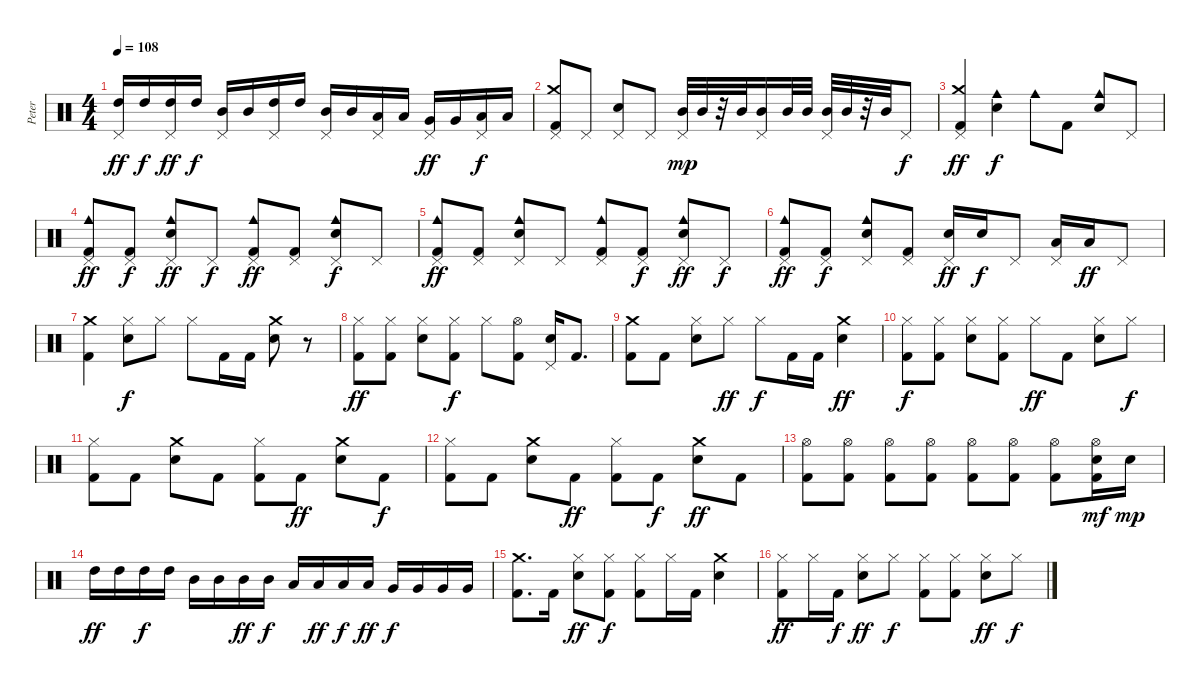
\track ("Peter" "Peter") {instrument percussion}
\staff {score}
\articulation defaults
\ts (4 4)
\tempo 108
\clef neutral
\ks c
("Pedal Hi-Hat (hit)" "High Tom (hit)").16{dy ff} "High Tom (hit)".16{dy f} ("Pedal Hi-Hat (hit)" "High Tom (hit)").16{dy ff} "High Tom (hit)".16{dy f} ("Mid Tom (hit)" "Pedal Hi-Hat (hit)").16 "Mid Tom (hit)".16 ("Pedal Hi-Hat (hit)" "High Tom (hit)").16 "High Tom (hit)".16 ("Mid Tom (hit)" "Pedal Hi-Hat (hit)").16 "Mid Tom (hit)".16 ("Low Tom (hit)" "Pedal Hi-Hat (hit)").16 "Low Tom (hit)".16 ("Pedal Hi-Hat (hit)" "Very Low Tom (hit)").16{dy ff} "Very Low Tom (hit)".16 ("Low Floor Tom (hit)" "Pedal Hi-Hat (hit)").16{dy f} "Low Floor Tom (hit)".16 |
("Pedal Hi-Hat (hit)" "Crash medium (hit)" "Kick (hit) 2").8 "Pedal Hi-Hat (hit)".8 ("Pedal Hi-Hat (hit)" "Electric Snare (hit)").8 "Pedal Hi-Hat (hit)".8 ("Mid Tom (hit)" "Pedal Hi-Hat (hit)").32{dy mp} "Mid Tom (hit)".32 r.32 "Mid Tom (hit)".32 ("Mid Tom (hit)" "Pedal Hi-Hat (hit)").16 "Mid Tom (hit)".32 "Mid Tom (hit)".32 ("Pedal Hi-Hat (hit)" "Mid Tom (hit)").32 "Mid Tom (hit)".32 r.32 "Mid Tom (hit)".32 "Pedal Hi-Hat (hit)".8{dy f} |
("Pedal Hi-Hat (hit)" "Crash medium (hit)" "Kick (hit) 2").4{dy ff} ("Cowbell medium (hit)" "Electric Snare (hit)").4{dy f} "Cowbell medium (hit)".8 "Kick (hit) 2".8 ("Electric Snare (hit)" "Cowbell medium (hit)").8 "Pedal Hi-Hat (hit)".8 |
("Pedal Hi-Hat (hit)" "Cowbell medium (hit)" "Kick (hit) 2").8{dy ff} ("Pedal Hi-Hat (hit)" "Kick (hit) 2").8{dy f} ("Electric Snare (hit)" "Cowbell medium (hit)" "Pedal Hi-Hat (hit)").8{dy ff} "Pedal Hi-Hat (hit)".8{dy f} ("Cowbell medium (hit)" "Pedal Hi-Hat (hit)" "Kick (hit) 2").8{dy ff} ("Kick (hit) 2" "Pedal Hi-Hat (hit)").8 ("Cowbell medium (hit)" "Electric Snare (hit)" "Pedal Hi-Hat (hit)").8{dy f} "Pedal Hi-Hat (hit)".8 |
("Kick (hit) 2" "Cowbell medium (hit)" "Pedal Hi-Hat (hit)").8{dy ff} ("Kick (hit) 2" "Pedal Hi-Hat (hit)").8 ("Pedal Hi-Hat (hit)" "Cowbell medium (hit)" "Electric Snare (hit)").8 "Pedal Hi-Hat (hit)".8 ("Kick (hit) 2" "Pedal Hi-Hat (hit)" "Cowbell medium (hit)").8 ("Pedal Hi-Hat (hit)" "Kick (hit) 2").8{dy f} ("Electric Snare (hit)" "Cowbell medium (hit)" "Pedal Hi-Hat (hit)").8{dy ff} "Pedal Hi-Hat (hit)".8{dy f} |
("Kick (hit) 2" "Pedal Hi-Hat (hit)" "Cowbell medium (hit)").8{dy ff} ("Kick (hit) 2" "Pedal Hi-Hat (hit)").8{dy f} ("Pedal Hi-Hat (hit)" "Electric Snare (hit)" "Cowbell medium (hit)").8 ("Kick (hit) 2" "Pedal Hi-Hat (hit)").8 ("Electric Snare (hit)" "Pedal Hi-Hat (hit)").16{dy ff} "Electric Snare (hit)".16{dy f} "Pedal Hi-Hat (hit)".8 ("Low Tom (hit)" "Pedal Hi-Hat (hit)").16 "Low Tom (hit)".16{dy ff} "Pedal Hi-Hat (hit)".8 |
("Kick (hit) 2" "Crash medium (hit)").4 ("Electric Snare (hit)" "Hi-Hat (closed)").8{dy f} "Hi-Hat (closed)".8 "Hi-Hat (closed)".8 "Kick (hit) 2".16 "Kick (hit) 2".16 ("Crash medium (hit)" "Electric Snare (hit)").8 r.8 |
("Hi-Hat (closed)" "Kick (hit) 2").8{dy ff} ("Hi-Hat (closed)" "Kick (hit) 2").8 ("Electric Snare (hit)" "Hi-Hat (closed)").8 ("Hi-Hat (closed)" "Kick (hit) 2").8{dy f} "Hi-Hat (closed)".8 ("Hi-Hat (open)" "Kick (hit) 2").8 ("Electric Snare (hit)" "Pedal Hi-Hat (hit)").16 "Kick (hit) 2".8{d} |
("Crash medium (hit)" "Kick (hit) 2").8 "Kick (hit) 2".8 ("Electric Snare (hit)" "Hi-Hat (closed)").8 "Hi-Hat (closed)".8{dy ff} "Hi-Hat (closed)".8{dy f} "Kick (hit) 2".16 "Kick (hit) 2".16 ("Crash medium (hit)" "Electric Snare (hit)").4{dy ff} |
("Kick (hit) 2" "Hi-Hat (closed)").8{dy f} ("Kick (hit) 2" "Hi-Hat (closed)").8 ("Hi-Hat (closed)" "Electric Snare (hit)").8 ("Hi-Hat (closed)" "Kick (hit) 2").8 "Hi-Hat (closed)".8{dy ff} "Kick (hit) 2".8 ("Hi-Hat (closed)" "Electric Snare (hit)").8 "Hi-Hat (closed)".8{dy f} |
("Hi-Hat (closed)" "Kick (hit) 2").8 "Kick (hit) 2".8 ("Crash medium (hit)" "Electric Snare (hit)").8 "Kick (hit) 2".8 ("Kick (hit) 2" "Hi-Hat (closed)").8 "Kick (hit) 2".8{dy ff} ("Electric Snare (hit)" "Crash medium (hit)").8 "Kick (hit) 2".8{dy f} |
("Kick (hit) 2" "Hi-Hat (closed)").8 "Kick (hit) 2".8 ("Electric Snare (hit)" "Crash medium (hit)").8 "Kick (hit) 2".8{dy ff} ("Hi-Hat (closed)" "Kick (hit) 2").8 "Kick (hit) 2".8{dy f} ("Electric Snare (hit)" "Crash medium (hit)").8{dy ff} "Kick (hit) 2".8 |
("Kick (hit) 2" "Hi-Hat (open)").8 ("Hi-Hat (open)" "Kick (hit) 2").8 ("Kick (hit) 2" "Hi-Hat (open)").8 ("Kick (hit) 2" "Hi-Hat (open)").8 ("Hi-Hat (open)" "Kick (hit) 2").8 ("Hi-Hat (open)" "Kick (hit) 2").8 ("Kick (hit) 2" "Hi-Hat (open)").8 ("Hi-Hat (open)" "Electric Snare (hit)" "Kick (hit) 2").16{dy mf} "Electric Snare (hit)".16{dy mp} |
"High Tom (hit)".16{dy ff} "High Tom (hit)".16 "High Tom (hit)".16{dy f} "High Tom (hit)".16 "Mid Tom (hit)".16 "Mid Tom (hit)".16 "Mid Tom (hit)".16{dy ff} "Mid Tom (hit)".16{dy f} "Low Tom (hit)".16 "Low Tom (hit)".16{dy ff} "Low Tom (hit)".16{dy f} "Low Tom (hit)".16{dy ff} "Very Low Tom (hit)".16{dy f} "Very Low Tom (hit)".16 "Very Low Tom (hit)".16 "Very Low Tom (hit)".16 |
("Crash medium (hit)" "Kick (hit) 2").8{d} "Kick (hit) 2".16 ("Electric Snare (hit)" "Hi-Hat (closed)").8{dy ff} ("Hi-Hat (closed)" "Kick (hit) 2").8{dy f} ("Kick (hit) 2" "Hi-Hat (closed)").8 "Hi-Hat (closed)".16 "Kick (hit) 2".16 ("Electric Snare (hit)" "Crash medium (hit)").4 |
("Hi-Hat (closed)" "Kick (hit) 2").8{dy ff} "Hi-Hat (closed)".16 "Kick (hit) 2".16{dy f} ("Hi-Hat (closed)" "Electric Snare (hit)").8{dy ff} "Hi-Hat (closed)".8{dy f} ("Kick (hit) 2" "Hi-Hat (closed)").8 ("Hi-Hat (closed)" "Kick (hit) 2").8 ("Electric Snare (hit)" "Hi-Hat (closed)").8{dy ff} "Hi-Hat (closed)".8{dy f}
